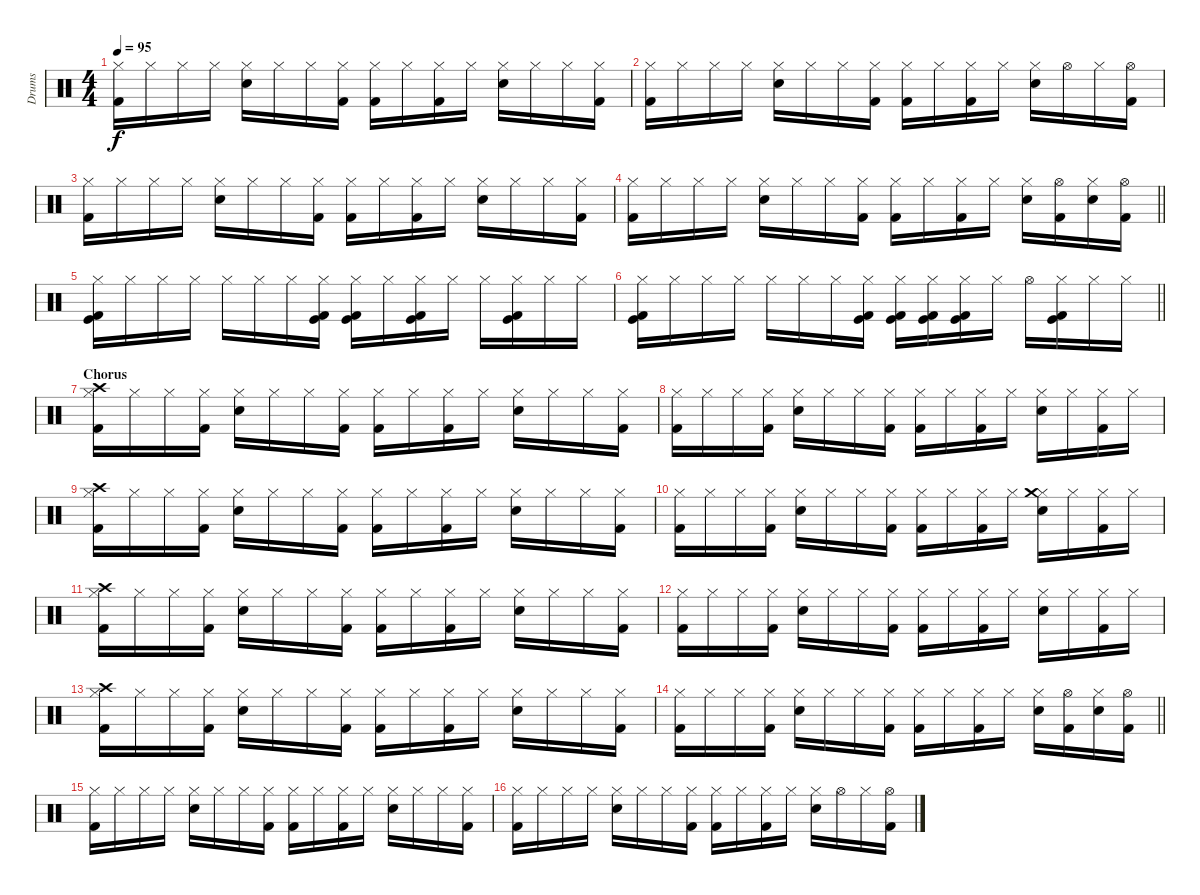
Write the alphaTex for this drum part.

\track ("Drums" "Drums") {instrument percussion}
\staff {score}
\articulation defaults
\ts (4 4)
\tempo 95
\clef neutral
\ks c
("Hi-Hat (closed)" "Kick (hit) 2").16{dy f} "Hi-Hat (closed)".16 "Hi-Hat (closed)".16 "Hi-Hat (closed)".16 ("Hi-Hat (closed)" "Electric Snare (hit)").16 "Hi-Hat (closed)".16 "Hi-Hat (closed)".16 ("Hi-Hat (closed)" "Kick (hit) 2").16 ("Hi-Hat (closed)" "Kick (hit) 2").16 "Hi-Hat (closed)".16 ("Hi-Hat (closed)" "Kick (hit) 2").16 "Hi-Hat (closed)".16 ("Hi-Hat (closed)" "Electric Snare (hit)").16 "Hi-Hat (closed)".16 "Hi-Hat (closed)".16 ("Kick (hit) 2" "Hi-Hat (closed)").16 |
("Hi-Hat (closed)" "Kick (hit) 2").16 "Hi-Hat (closed)".16 "Hi-Hat (closed)".16 "Hi-Hat (closed)".16 ("Hi-Hat (closed)" "Electric Snare (hit)").16 "Hi-Hat (closed)".16 "Hi-Hat (closed)".16 ("Hi-Hat (closed)" "Kick (hit) 2").16 ("Hi-Hat (closed)" "Kick (hit) 2").16 "Hi-Hat (closed)".16 ("Hi-Hat (closed)" "Kick (hit) 2").16 "Hi-Hat (closed)".16 ("Hi-Hat (closed)" "Electric Snare (hit)").16 "Hi-Hat (open)".16 "Hi-Hat (closed)".16 ("Hi-Hat (open)" "Kick (hit) 2").16 |
("Hi-Hat (closed)" "Kick (hit) 2").16 "Hi-Hat (closed)".16 "Hi-Hat (closed)".16 "Hi-Hat (closed)".16 ("Hi-Hat (closed)" "Electric Snare (hit)").16 "Hi-Hat (closed)".16 "Hi-Hat (closed)".16 ("Hi-Hat (closed)" "Kick (hit) 2").16 ("Hi-Hat (closed)" "Kick (hit) 2").16 "Hi-Hat (closed)".16 ("Hi-Hat (closed)" "Kick (hit) 2").16 "Hi-Hat (closed)".16 ("Hi-Hat (closed)" "Electric Snare (hit)").16 "Hi-Hat (closed)".16 "Hi-Hat (closed)".16 ("Kick (hit) 2" "Hi-Hat (closed)").16 |
\barLineRight lightlight
("Hi-Hat (closed)" "Kick (hit) 2").16 "Hi-Hat (closed)".16 "Hi-Hat (closed)".16 "Hi-Hat (closed)".16 ("Hi-Hat (closed)" "Electric Snare (hit)").16 "Hi-Hat (closed)".16 "Hi-Hat (closed)".16 ("Hi-Hat (closed)" "Kick (hit) 2").16 ("Hi-Hat (closed)" "Kick (hit) 2").16 "Hi-Hat (closed)".16 ("Hi-Hat (closed)" "Kick (hit) 2").16 "Hi-Hat (closed)".16 ("Hi-Hat (closed)" "Electric Snare (hit)").16 ("Hi-Hat (open)" "Kick (hit) 2").16 ("Hi-Hat (closed)" "Electric Snare (hit)").16 ("Hi-Hat (open)" "Kick (hit) 2").16 |
("Hi-Hat (closed)" "Kick (hit) 2" "Kick (hit)").16 "Hi-Hat (closed)".16 "Hi-Hat (closed)".16 "Hi-Hat (closed)".16 "Hi-Hat (closed)".16 "Hi-Hat (closed)".16 "Hi-Hat (closed)".16 ("Hi-Hat (closed)" "Kick (hit) 2" "Kick (hit)").16 ("Hi-Hat (closed)" "Kick (hit) 2" "Kick (hit)").16 "Hi-Hat (closed)".16 ("Hi-Hat (closed)" "Kick (hit) 2" "Kick (hit)").16 "Hi-Hat (closed)".16 "Hi-Hat (closed)".16 ("Hi-Hat (closed)" "Kick (hit)" "Kick (hit) 2").16 "Hi-Hat (closed)".16 "Hi-Hat (closed)".16 |
\barLineRight lightlight
("Hi-Hat (closed)" "Kick (hit) 2" "Kick (hit)").16 "Hi-Hat (closed)".16 "Hi-Hat (closed)".16 "Hi-Hat (closed)".16 "Hi-Hat (closed)".16 "Hi-Hat (closed)".16 "Hi-Hat (closed)".16 ("Hi-Hat (closed)" "Kick (hit) 2" "Kick (hit)").16 ("Hi-Hat (closed)" "Kick (hit) 2" "Kick (hit)").16 ("Hi-Hat (closed)" "Kick (hit) 2" "Kick (hit)").16 ("Hi-Hat (closed)" "Kick (hit)" "Kick (hit) 2").16 "Hi-Hat (closed)".16 "Hi-Hat (open)".16 ("Hi-Hat (closed)" "Kick (hit) 2" "Kick (hit)").16 "Hi-Hat (closed)".16 "Hi-Hat (closed)".16 |
\section ("" "Chorus")
("Hi-Hat (closed)" "Crash high (hit)" "Kick (hit) 2").16 "Hi-Hat (closed)".16 "Hi-Hat (closed)".16 ("Hi-Hat (closed)" "Kick (hit) 2").16 ("Hi-Hat (closed)" "Electric Snare (hit)").16 "Hi-Hat (closed)".16 "Hi-Hat (closed)".16 ("Hi-Hat (closed)" "Kick (hit) 2").16 ("Hi-Hat (closed)" "Kick (hit) 2").16 "Hi-Hat (closed)".16 ("Hi-Hat (closed)" "Kick (hit) 2").16 "Hi-Hat (closed)".16 ("Hi-Hat (closed)" "Electric Snare (hit)").16 "Hi-Hat (closed)".16 "Hi-Hat (closed)".16 ("Hi-Hat (closed)" "Kick (hit) 2").16 |
("Hi-Hat (closed)" "Kick (hit) 2").16 "Hi-Hat (closed)".16 "Hi-Hat (closed)".16 ("Hi-Hat (closed)" "Kick (hit) 2").16 ("Hi-Hat (closed)" "Electric Snare (hit)").16 "Hi-Hat (closed)".16 "Hi-Hat (closed)".16 ("Hi-Hat (closed)" "Kick (hit) 2").16 ("Hi-Hat (closed)" "Kick (hit) 2").16 "Hi-Hat (closed)".16 ("Hi-Hat (closed)" "Kick (hit) 2").16 "Hi-Hat (closed)".16 ("Hi-Hat (closed)" "Electric Snare (hit)").16 "Hi-Hat (closed)".16 ("Hi-Hat (closed)" "Kick (hit) 2").16 "Hi-Hat (closed)".16 |
("Hi-Hat (closed)" "Crash high (hit)" "Kick (hit) 2").16 "Hi-Hat (closed)".16 "Hi-Hat (closed)".16 ("Hi-Hat (closed)" "Kick (hit) 2").16 ("Hi-Hat (closed)" "Electric Snare (hit)").16 "Hi-Hat (closed)".16 "Hi-Hat (closed)".16 ("Hi-Hat (closed)" "Kick (hit) 2").16 ("Hi-Hat (closed)" "Kick (hit) 2").16 "Hi-Hat (closed)".16 ("Hi-Hat (closed)" "Kick (hit) 2").16 "Hi-Hat (closed)".16 ("Hi-Hat (closed)" "Electric Snare (hit)").16 "Hi-Hat (closed)".16 "Hi-Hat (closed)".16 ("Hi-Hat (closed)" "Kick (hit) 2").16 |
("Hi-Hat (closed)" "Kick (hit) 2").16 "Hi-Hat (closed)".16 "Hi-Hat (closed)".16 ("Hi-Hat (closed)" "Kick (hit) 2").16 ("Hi-Hat (closed)" "Electric Snare (hit)").16 "Hi-Hat (closed)".16 "Hi-Hat (closed)".16 ("Hi-Hat (closed)" "Kick (hit) 2").16 ("Hi-Hat (closed)" "Kick (hit) 2").16 "Hi-Hat (closed)".16 ("Hi-Hat (closed)" "Kick (hit) 2").16 "Hi-Hat (closed)".16 ("Hi-Hat (closed)" "Electric Snare (hit)" "Crash medium (hit)").16 "Hi-Hat (closed)".16 ("Hi-Hat (closed)" "Kick (hit) 2").16 "Hi-Hat (closed)".16 |
("Hi-Hat (closed)" "Crash high (hit)" "Kick (hit) 2").16 "Hi-Hat (closed)".16 "Hi-Hat (closed)".16 ("Hi-Hat (closed)" "Kick (hit) 2").16 ("Hi-Hat (closed)" "Electric Snare (hit)").16 "Hi-Hat (closed)".16 "Hi-Hat (closed)".16 ("Hi-Hat (closed)" "Kick (hit) 2").16 ("Hi-Hat (closed)" "Kick (hit) 2").16 "Hi-Hat (closed)".16 ("Hi-Hat (closed)" "Kick (hit) 2").16 "Hi-Hat (closed)".16 ("Hi-Hat (closed)" "Electric Snare (hit)").16 "Hi-Hat (closed)".16 "Hi-Hat (closed)".16 ("Hi-Hat (closed)" "Kick (hit) 2").16 |
("Hi-Hat (closed)" "Kick (hit) 2").16 "Hi-Hat (closed)".16 "Hi-Hat (closed)".16 ("Hi-Hat (closed)" "Kick (hit) 2").16 ("Hi-Hat (closed)" "Electric Snare (hit)").16 "Hi-Hat (closed)".16 "Hi-Hat (closed)".16 ("Hi-Hat (closed)" "Kick (hit) 2").16 ("Hi-Hat (closed)" "Kick (hit) 2").16 "Hi-Hat (closed)".16 ("Hi-Hat (closed)" "Kick (hit) 2").16 "Hi-Hat (closed)".16 ("Hi-Hat (closed)" "Electric Snare (hit)").16 "Hi-Hat (closed)".16 ("Hi-Hat (closed)" "Kick (hit) 2").16 "Hi-Hat (closed)".16 |
("Hi-Hat (closed)" "Crash high (hit)" "Kick (hit) 2").16 "Hi-Hat (closed)".16 "Hi-Hat (closed)".16 ("Hi-Hat (closed)" "Kick (hit) 2").16 ("Hi-Hat (closed)" "Electric Snare (hit)").16 "Hi-Hat (closed)".16 "Hi-Hat (closed)".16 ("Hi-Hat (closed)" "Kick (hit) 2").16 ("Hi-Hat (closed)" "Kick (hit) 2").16 "Hi-Hat (closed)".16 ("Hi-Hat (closed)" "Kick (hit) 2").16 "Hi-Hat (closed)".16 ("Hi-Hat (closed)" "Electric Snare (hit)").16 "Hi-Hat (closed)".16 "Hi-Hat (closed)".16 ("Hi-Hat (closed)" "Kick (hit) 2").16 |
\barLineRight lightlight
("Hi-Hat (closed)" "Kick (hit) 2").16 "Hi-Hat (closed)".16 "Hi-Hat (closed)".16 ("Hi-Hat (closed)" "Kick (hit) 2").16 ("Hi-Hat (closed)" "Electric Snare (hit)").16 "Hi-Hat (closed)".16 "Hi-Hat (closed)".16 ("Hi-Hat (closed)" "Kick (hit) 2").16 ("Hi-Hat (closed)" "Kick (hit) 2").16 "Hi-Hat (closed)".16 ("Hi-Hat (closed)" "Kick (hit) 2").16 "Hi-Hat (closed)".16 ("Hi-Hat (closed)" "Electric Snare (hit)").16 ("Hi-Hat (open)" "Kick (hit) 2").16 ("Hi-Hat (closed)" "Electric Snare (hit)").16 ("Hi-Hat (open)" "Kick (hit) 2").16 |
("Hi-Hat (closed)" "Kick (hit) 2").16 "Hi-Hat (closed)".16 "Hi-Hat (closed)".16 "Hi-Hat (closed)".16 ("Hi-Hat (closed)" "Electric Snare (hit)").16 "Hi-Hat (closed)".16 "Hi-Hat (closed)".16 ("Hi-Hat (closed)" "Kick (hit) 2").16 ("Hi-Hat (closed)" "Kick (hit) 2").16 "Hi-Hat (closed)".16 ("Hi-Hat (closed)" "Kick (hit) 2").16 "Hi-Hat (closed)".16 ("Hi-Hat (closed)" "Electric Snare (hit)").16 "Hi-Hat (closed)".16 "Hi-Hat (closed)".16 ("Kick (hit) 2" "Hi-Hat (closed)").16 |
("Hi-Hat (closed)" "Kick (hit) 2").16 "Hi-Hat (closed)".16 "Hi-Hat (closed)".16 "Hi-Hat (closed)".16 ("Hi-Hat (closed)" "Electric Snare (hit)").16 "Hi-Hat (closed)".16 "Hi-Hat (closed)".16 ("Hi-Hat (closed)" "Kick (hit) 2").16 ("Hi-Hat (closed)" "Kick (hit) 2").16 "Hi-Hat (closed)".16 ("Hi-Hat (closed)" "Kick (hit) 2").16 "Hi-Hat (closed)".16 ("Hi-Hat (closed)" "Electric Snare (hit)").16 "Hi-Hat (open)".16 "Hi-Hat (closed)".16 ("Hi-Hat (open)" "Kick (hit) 2").16
